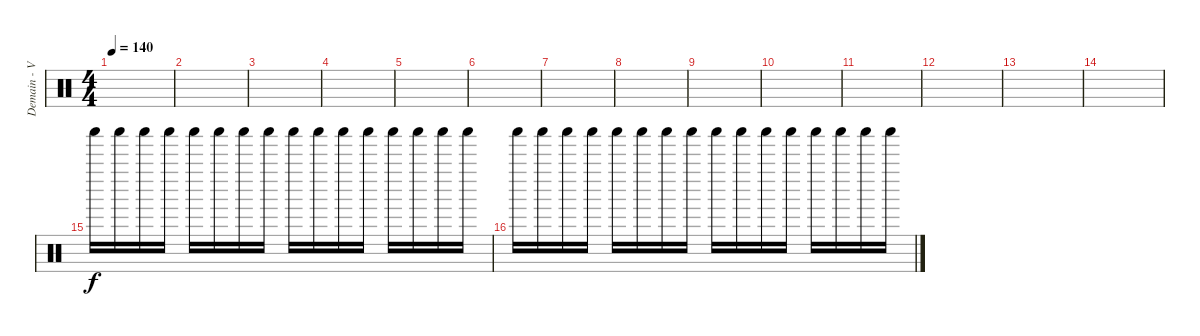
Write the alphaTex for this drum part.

\track ("Demain - Various Perc." "Demain - V") {instrument percussion}
\staff {score}
\articulation defaults
\ts (4 4)
\tempo 140
\clef neutral
\ks c
|
|
|
|
|
|
|
|
|
|
|
|
|
|
"Shaker (hit)".16{dy f} "Shaker (hit)".16 "Shaker (hit)".16 "Shaker (hit)".16 "Shaker (hit)".16 "Shaker (hit)".16 "Shaker (hit)".16 "Shaker (hit)".16 "Shaker (hit)".16 "Shaker (hit)".16 "Shaker (hit)".16 "Shaker (hit)".16 "Shaker (hit)".16 "Shaker (hit)".16 "Shaker (hit)".16 "Shaker (hit)".16 |
"Shaker (hit)".16 "Shaker (hit)".16 "Shaker (hit)".16 "Shaker (hit)".16 "Shaker (hit)".16 "Shaker (hit)".16 "Shaker (hit)".16 "Shaker (hit)".16 "Shaker (hit)".16 "Shaker (hit)".16 "Shaker (hit)".16 "Shaker (hit)".16 "Shaker (hit)".16 "Shaker (hit)".16 "Shaker (hit)".16 "Shaker (hit)".16
